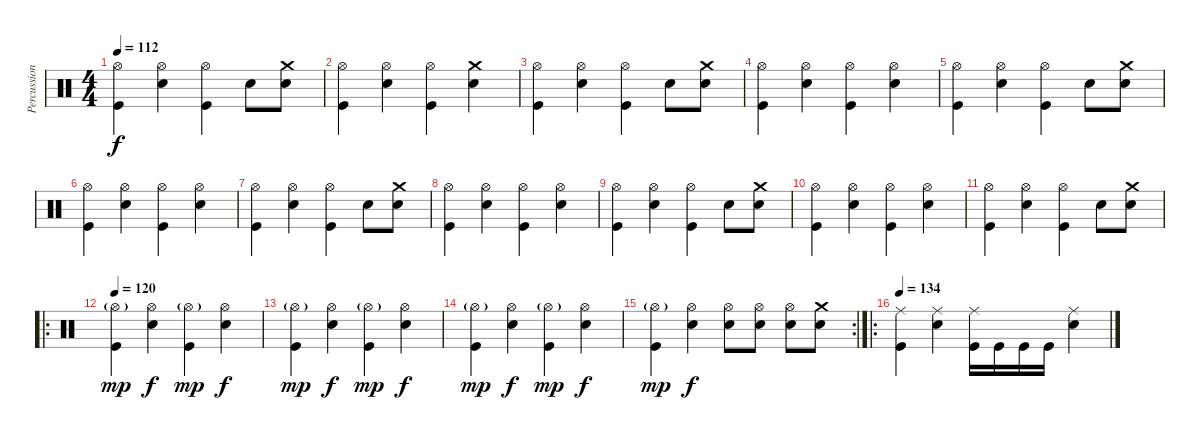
\track ("Percussion" "Percussion") {instrument percussion}
\staff {score}
\articulation defaults
\ts (4 4)
\tempo 112
\clef neutral
\ks c
("Hi-Hat (open)" "Kick (hit)").4{dy f} ("Hi-Hat (open)" "Snare (hit) 2").4 ("Hi-Hat (open)" "Kick (hit)").4 "Snare (hit) 2".8 ("Crash medium (hit)" "Snare (hit) 2").8 |
("Hi-Hat (open)" "Kick (hit)").4 ("Hi-Hat (open)" "Snare (hit) 2").4 ("Hi-Hat (open)" "Kick (hit)").4 ("Crash medium (hit)" "Snare (hit) 2").4 |
("Hi-Hat (open)" "Kick (hit)").4 ("Hi-Hat (open)" "Snare (hit) 2").4 ("Hi-Hat (open)" "Kick (hit)").4 "Snare (hit) 2".8 ("Crash medium (hit)" "Snare (hit) 2").8 |
("Hi-Hat (open)" "Kick (hit)").4 ("Hi-Hat (open)" "Snare (hit) 2").4 ("Hi-Hat (open)" "Kick (hit)").4 ("Hi-Hat (open)" "Snare (hit) 2").4 |
("Hi-Hat (open)" "Kick (hit)").4 ("Hi-Hat (open)" "Snare (hit) 2").4 ("Hi-Hat (open)" "Kick (hit)").4 "Snare (hit) 2".8 ("Crash medium (hit)" "Snare (hit) 2").8 |
("Hi-Hat (open)" "Kick (hit)").4 ("Hi-Hat (open)" "Snare (hit) 2").4 ("Hi-Hat (open)" "Kick (hit)").4 ("Hi-Hat (open)" "Snare (hit) 2").4 |
("Hi-Hat (open)" "Kick (hit)").4 ("Hi-Hat (open)" "Snare (hit) 2").4 ("Hi-Hat (open)" "Kick (hit)").4 "Snare (hit) 2".8 ("Crash medium (hit)" "Snare (hit) 2").8 |
("Hi-Hat (open)" "Kick (hit)").4 ("Hi-Hat (open)" "Snare (hit) 2").4 ("Hi-Hat (open)" "Kick (hit)").4 ("Hi-Hat (open)" "Snare (hit) 2").4 |
("Hi-Hat (open)" "Kick (hit)").4 ("Hi-Hat (open)" "Snare (hit) 2").4 ("Hi-Hat (open)" "Kick (hit)").4 "Snare (hit) 2".8 ("Crash medium (hit)" "Snare (hit) 2").8 |
("Hi-Hat (open)" "Kick (hit)").4 ("Hi-Hat (open)" "Snare (hit) 2").4 ("Hi-Hat (open)" "Kick (hit)").4 ("Hi-Hat (open)" "Snare (hit) 2").4 |
("Hi-Hat (open)" "Kick (hit)").4 ("Hi-Hat (open)" "Snare (hit) 2").4 ("Hi-Hat (open)" "Kick (hit)").4 "Snare (hit) 2".8 ("Crash medium (hit)" "Snare (hit) 2").8 |
\ro
\tempo 120
("Hi-Hat (open)"{g} "Kick (hit)").4{dy mp} ("Hi-Hat (open)" "Snare (hit) 2").4{dy f} ("Hi-Hat (open)"{g} "Kick (hit)").4{dy mp} ("Hi-Hat (open)" "Snare (hit) 2").4{dy f} |
("Hi-Hat (open)"{g} "Kick (hit)").4{dy mp} ("Hi-Hat (open)" "Snare (hit) 2").4{dy f} ("Hi-Hat (open)"{g} "Kick (hit)").4{dy mp} ("Hi-Hat (open)" "Snare (hit) 2").4{dy f} |
("Hi-Hat (open)"{g} "Kick (hit)").4{dy mp} ("Hi-Hat (open)" "Snare (hit) 2").4{dy f} ("Hi-Hat (open)"{g} "Kick (hit)").4{dy mp} ("Hi-Hat (open)" "Snare (hit) 2").4{dy f} |
\rc 2
("Hi-Hat (open)"{g} "Kick (hit)").4{dy mp} ("Hi-Hat (open)" "Snare (hit) 2").4{dy f} ("Hi-Hat (open)" "Snare (hit) 2").8 ("Hi-Hat (open)" "Snare (hit) 2").8 ("Hi-Hat (open)" "Snare (hit) 2").8 ("Crash medium (hit)" "Snare (hit) 2").8 |
\ro
\tempo 134
("Ride (middle)" "Kick (hit)").4 ("Ride (middle)" "Snare (hit) 2").4 ("Ride (middle)" "Kick (hit)").16 "Kick (hit)".16 "Kick (hit)".16 "Kick (hit)".16 ("Ride (middle)" "Snare (hit) 2").4
